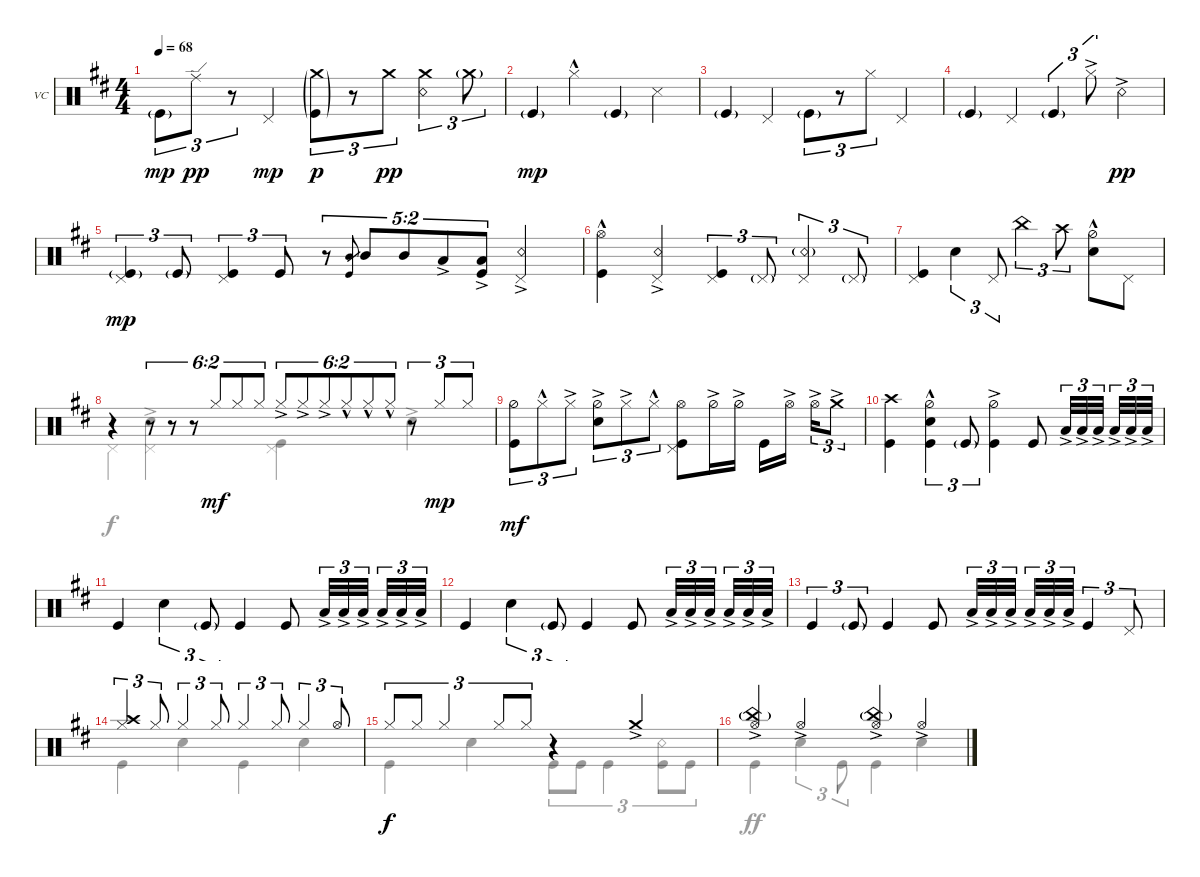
\defaultSystemsLayout 4
\bracketExtendMode nobrackets
\firstSystemTrackNameOrientation horizontal
\otherSystemsTrackNameOrientation horizontal
\track ("Vinnie Colaiuta" "VC") {instrument percussion}
\staff {score}
\articulation defaults
\voice
\ts (4 4)
\tempo 68
\clef neutral
\ks bminor "Kick (hit)"{g}.8{tu (3 2) dy mp} "Ride (edge)".8{tu (3 2) dy pp}
r.8{tu (3 2)} "Pedal Hi-Hat (hit)".4{dy mp} ("Kick (hit)"{g} "Crash medium (hit)"{g}).8{tu (3 2) dy p} r.8{tu (3 2)} "Crash medium (hit)".8{tu (3 2) dy pp} ("Crash medium (hit)" "Snare (rim shot)").4{tu (3 2)} "Crash medium (hit)"{g}.8{tu (3 2)} |
"Kick (hit)"{g}.4{dy mp} "Hi-Hat (closed)"{hac}.4 "Kick (hit)"{g}.4 "Snare (side stick) 3".4 |
"Kick (hit)"{g}.4 "Pedal Hi-Hat (hit)".4 "Kick (hit)"{g}.8{tu (3 2)} r.8{tu (3 2)} "Hi-Hat (closed)".8{tu (3 2)} "Pedal Hi-Hat (hit)".4 |
"Kick (hit)"{g}.4 "Pedal Hi-Hat (hit)".4 "Kick (hit)"{g}.4{tu (3 2)} "Hi-Hat (closed)"{ac}.8{tu (3 2)} "Snare (rim shot)"{ac}.4{dy pp} |
("Pedal Hi-Hat (hit)" "Kick (hit)"{g}).4{tu (3 2) dy mp} "Kick (hit)"{g}.8{tu (3 2)} ("Kick (hit)" "Pedal Hi-Hat (hit)").4{tu (3 2)} "Kick (hit)".8{tu (3 2)} r.8{tu (5 2)} ("Mid Tom (hit)" "Kick (hit)").8{gr} "Mid Tom (hit)".8{tu (5 2)} "Mid Tom (hit)".8{tu (5 2)} "Low Tom (hit)"{ac}.8{tu (5 2)} ("Low Tom (hit)"{ac} "Kick (hit)").8{tu (5 2)} ("Snare (rim shot)"{ac} "Pedal Hi-Hat (hit)").4 |
("Hi-Hat (open)"{hac} "Kick (hit)").4 ("Snare (rim shot)"{ac} "Pedal Hi-Hat (hit)").4 ("Pedal Hi-Hat (hit)" "Kick (hit)").4{tu (3 2)} "Pedal Hi-Hat (hit)"{g}.8{tu (3 2)} ("Pedal Hi-Hat (hit)" "Snare (rim shot)"{g}).4{tu (3 2)} "Pedal Hi-Hat (hit)"{g}.8{tu (3 2)} |
("Kick (hit)" "Pedal Hi-Hat (hit)").4 "Snare (hit) 2".4{tu (3 2)} "Pedal Hi-Hat (hit)".8{tu (3 2)} "China (hit)".4{tu (3 2)} "Crash high (hit)".8{tu (3 2)} ("Hi-Hat (half)"{hac} "Snare (hit) 2").8 "Pedal Hi-Hat (hit)".8 |
r.4 r.8{tu (6 2)} r.8{tu (6 2)} r.8{tu (6 2)} "Hi-Hat (closed)".8{tu (6 2) dy mf} "Hi-Hat (closed)".8{tu (6 2)} "Hi-Hat (closed)".8{tu (6 2)} "Hi-Hat (closed)"{ac}.8{tu (6 2)} "Hi-Hat (closed)"{ac}.8{tu (6 2)} "Hi-Hat (closed)"{ac}.8{tu (6 2)} "Hi-Hat (closed)"{hac}.8{tu (6 2)} "Hi-Hat (closed)"{hac}.8{tu (6 2)} "Hi-Hat (closed)"{hac}.8{tu (6 2)} r.8{tu (3 2)} "Hi-Hat (closed)".8{tu (3 2) dy mp} "Hi-Hat (closed)".8{tu (3 2)} |
("Kick (hit)" "Hi-Hat (half)").8{tu (3 2) dy mf} "Hi-Hat (closed)"{hac}.8{tu (3 2)} "Hi-Hat (closed)"{ac}.8{tu (3 2)} ("Snare (hit) 2"{ac} "Hi-Hat (half)").8{tu (3 2)} "Hi-Hat (closed)"{ac}.8{tu (3 2)} "Hi-Hat (closed)"{hac}.8{tu (3 2)} ("Hi-Hat (open)" "Pedal Hi-Hat (hit)" "Kick (hit)").8 "Hi-Hat (half)"{ac}.16 "Hi-Hat (half)"{ac}.16 "Kick (hit)".16 "Hi-Hat (open)"{ac}.16 "Hi-Hat (open)"{ac}.16{tu (3 2)} "Crash medium (hit)"{ac}.8{tu (3 2)} |
("Crash high (hit)" "Kick (hit)").4 ("Kick (hit)" "Hi-Hat (half)"{hac} "Snare (hit) 2").4{tu (3 2)} "Kick (hit)"{g}.8{tu (3 2)} ("Kick (hit)" "Hi-Hat (half)"{ac}).4 "Kick (hit)".8 "Low Tom (hit)"{ac}.32{tu (3 2)} "Low Tom (hit)"{ac}.32{tu (3 2)} "Low Tom (hit)"{ac}.32{tu (3 2)} "Low Tom (hit)"{ac}.32{tu (3 2)} "Low Tom (hit)"{ac}.32{tu (3 2)} "Low Tom (hit)"{ac}.32{tu (3 2)} |
"Kick (hit)".4 "Snare (hit) 2".4{tu (3 2)} "Kick (hit)"{g}.8{tu (3 2)} "Kick (hit)".4 "Kick (hit)".8 "Low Tom (hit)"{ac}.32{tu (3 2)} "Low Tom (hit)"{ac}.32{tu (3 2)} "Low Tom (hit)"{ac}.32{tu (3 2)} "Low Tom (hit)"{ac}.32{tu (3 2)} "Low Tom (hit)"{ac}.32{tu (3 2)} "Low Tom (hit)"{ac}.32{tu (3 2)} |
"Kick (hit)".4 "Snare (hit) 2".4{tu (3 2)} "Kick (hit)"{g}.8{tu (3 2)} "Kick (hit)".4 "Kick (hit)".8 "Low Tom (hit)"{ac}.32{tu (3 2)} "Low Tom (hit)"{ac}.32{tu (3 2)} "Low Tom (hit)"{ac}.32{tu (3 2)} "Low Tom (hit)"{ac}.32{tu (3 2)} "Low Tom (hit)"{ac}.32{tu (3 2)} "Low Tom (hit)"{ac}.32{tu (3 2)} |
"Kick (hit)".4{tu (3 2)} "Kick (hit)"{g}.8{tu (3 2)} "Kick (hit)".4 "Kick (hit)".8 "Low Tom (hit)"{ac}.32{tu (3 2)} "Low Tom (hit)"{ac}.32{tu (3 2)} "Low Tom (hit)"{ac}.32{tu (3 2)} "Low Tom (hit)"{ac}.32{tu (3 2)} "Low Tom (hit)"{ac}.32{tu (3 2)} "Low Tom (hit)"{ac}.32{tu (3 2)} "Kick (hit)".4{tu (3 2)} "Pedal Hi-Hat (hit)".8{tu (3 2)} |
("Crash high (hit)" "Hi-Hat (closed)").4{tu (3 2)} "Hi-Hat (closed)".8{tu (3 2)} "Hi-Hat (closed)".4{tu (3 2)} "Hi-Hat (closed)".8{tu (3 2)} "Hi-Hat (closed)".4{tu (3 2)} "Hi-Hat (closed)".8{tu (3 2)} "Hi-Hat (closed)".4{tu (3 2)} "Hi-Hat (open)".8{tu (3 2)} |
"Hi-Hat (closed)".8{tu (3 2) dy f} "Hi-Hat (closed)".8{tu (3 2)} "Hi-Hat (closed)".4{tu (3 2)} "Hi-Hat (closed)".8{tu (3 2)} "Hi-Hat (closed)".8{tu (3 2)} r.4 "Crash medium (hit)"{ac}.4 |
("Hi-Hat (open)"{ac} "China (hit)"{g}).4 "Hi-Hat (open)"{ac}.4 ("Hi-Hat (open)"{ac} "China (hit)"{g}).4 "Hi-Hat (open)"{ac}.4
\voice
\clef neutral
\ottava regular
\simile none
\ks bminor
|
|
|
|
|
|
|
"Pedal Hi-Hat (hit)".4 ("Snare (hit) 2"{ac} "Pedal Hi-Hat (hit)").4 ("Kick (hit)" "Pedal Hi-Hat (hit)").4 "Snare (hit) 2"{ac}.4 |
|
|
|
|
|
"Kick (hit)".4 "Snare (hit) 2".4 "Kick (hit)".4 "Snare (hit) 2".4 |
"Kick (hit)".4{dy f} "Snare (hit) 2".4 "Kick (hit)".8{tu (3 2)} "Kick (hit)".8{tu (3 2)} "Kick (hit)".4{tu (3 2)} ("Kick (hit)" "Snare (rim shot)").8{tu (3 2)} "Kick (hit)".8{tu (3 2)} |
"Kick (hit)".4{dy ff} "Snare (hit) 2".4{tu (3 2)} "Kick (hit)".8{tu (3 2)} "Kick (hit)".4 "Snare (hit) 2".4
